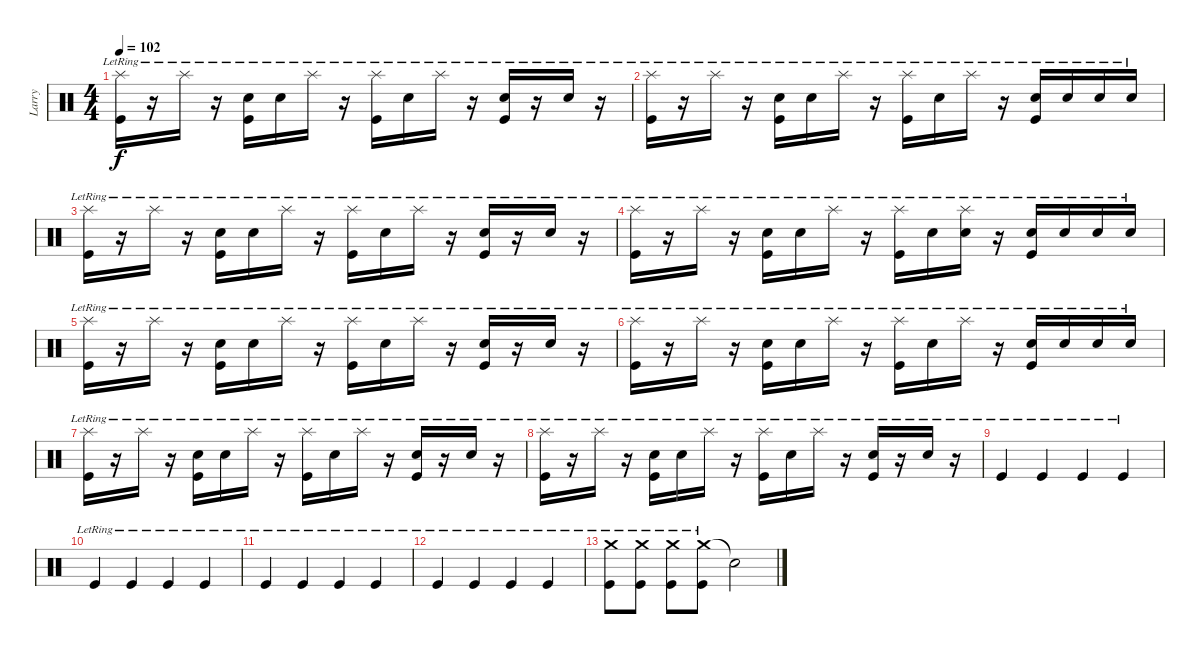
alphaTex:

\track ("Larry" "Larry") {instrument percussion}
\staff {score}
\articulation defaults
\ts (4 4)
\tempo 102
\clef neutral
\ks c
("Splash (hit)"{lr} "Kick (hit)"{lr}).16{dy f} r.16 "Splash (hit)"{lr}.16 r.16 ("Snare (hit) 2"{lr} "Kick (hit)"{lr}).16 "Snare (hit) 2"{lr}.16 "Splash (hit)"{lr}.16 r.16 ("Splash (hit)"{lr} "Kick (hit)"{lr}).16 "Snare (hit) 2"{lr}.16 "Splash (hit)"{lr}.16 r.16 ("Snare (hit) 2"{lr} "Kick (hit)"{lr}).16 r.16 "Snare (hit) 2"{lr}.16 r.16 |
("Splash (hit)"{lr} "Kick (hit)"{lr}).16 r.16 "Splash (hit)"{lr}.16 r.16 ("Snare (hit) 2"{lr} "Kick (hit)"{lr}).16 "Snare (hit) 2"{lr}.16 "Splash (hit)"{lr}.16 r.16 ("Splash (hit)"{lr} "Kick (hit)"{lr}).16 "Snare (hit) 2"{lr}.16 "Splash (hit)"{lr}.16 r.16 ("Snare (hit) 2"{lr} "Kick (hit)"{lr}).16 "Snare (hit) 2"{lr}.16 "Snare (hit) 2"{lr}.16 "Snare (hit) 2"{lr}.16 |
("Splash (hit)"{lr} "Kick (hit)"{lr}).16 r.16 "Splash (hit)"{lr}.16 r.16 ("Snare (hit) 2"{lr} "Kick (hit)"{lr}).16 "Snare (hit) 2"{lr}.16 "Splash (hit)"{lr}.16 r.16 ("Splash (hit)"{lr} "Kick (hit)"{lr}).16 "Snare (hit) 2"{lr}.16 "Splash (hit)"{lr}.16 r.16 ("Snare (hit) 2"{lr} "Kick (hit)"{lr}).16 r.16 "Snare (hit) 2"{lr}.16 r.16 |
("Splash (hit)"{lr} "Kick (hit)"{lr}).16 r.16 "Splash (hit)"{lr}.16 r.16 ("Snare (hit) 2"{lr} "Kick (hit)"{lr}).16 "Snare (hit) 2"{lr}.16 "Splash (hit)"{lr}.16 r.16 ("Splash (hit)"{lr} "Kick (hit)"{lr}).16 "Snare (hit) 2"{lr}.16 ("Splash (hit)"{lr} "Snare (hit) 2"{lr}).16 r.16 ("Snare (hit) 2"{lr} "Kick (hit)"{lr}).16 "Snare (hit) 2"{lr}.16 "Snare (hit) 2"{lr}.16 "Snare (hit) 2"{lr}.16 |
("Splash (hit)"{lr} "Kick (hit)"{lr}).16 r.16 "Splash (hit)"{lr}.16 r.16 ("Snare (hit) 2"{lr} "Kick (hit)"{lr}).16 "Snare (hit) 2"{lr}.16 "Splash (hit)"{lr}.16 r.16 ("Splash (hit)"{lr} "Kick (hit)"{lr}).16 "Snare (hit) 2"{lr}.16 "Splash (hit)"{lr}.16 r.16 ("Snare (hit) 2"{lr} "Kick (hit)"{lr}).16 r.16 "Snare (hit) 2"{lr}.16 r.16 |
("Splash (hit)"{lr} "Kick (hit)"{lr}).16 r.16 "Splash (hit)"{lr}.16 r.16 ("Snare (hit) 2"{lr} "Kick (hit)"{lr}).16 "Snare (hit) 2"{lr}.16 "Splash (hit)"{lr}.16 r.16 ("Splash (hit)"{lr} "Kick (hit)"{lr}).16 "Snare (hit) 2"{lr}.16 "Splash (hit)"{lr}.16 r.16 ("Snare (hit) 2"{lr} "Kick (hit)"{lr}).16 "Snare (hit) 2"{lr}.16 "Snare (hit) 2"{lr}.16 "Snare (hit) 2"{lr}.16 |
("Splash (hit)"{lr} "Kick (hit)"{lr}).16 r.16 "Splash (hit)"{lr}.16 r.16 ("Snare (hit) 2"{lr} "Kick (hit)"{lr}).16 "Snare (hit) 2"{lr}.16 "Splash (hit)"{lr}.16 r.16 ("Splash (hit)"{lr} "Kick (hit)"{lr}).16 "Snare (hit) 2"{lr}.16 "Splash (hit)"{lr}.16 r.16 ("Snare (hit) 2"{lr} "Kick (hit)"{lr}).16 r.16 "Snare (hit) 2"{lr}.16 r.16 |
("Splash (hit)"{lr} "Kick (hit)"{lr}).16 r.16 "Splash (hit)"{lr}.16 r.16 ("Snare (hit) 2"{lr} "Kick (hit)"{lr}).16 "Snare (hit) 2"{lr}.16 "Splash (hit)"{lr}.16 r.16 ("Splash (hit)"{lr} "Kick (hit)"{lr}).16 "Snare (hit) 2"{lr}.16 "Splash (hit)"{lr}.16 r.16 ("Snare (hit) 2"{lr} "Kick (hit)"{lr}).16 r.16 "Snare (hit) 2"{lr}.16 r.16 |
"Kick (hit)"{lr}.4 "Kick (hit)"{lr}.4 "Kick (hit)"{lr}.4 "Kick (hit)"{lr}.4 |
"Kick (hit)"{lr}.4 "Kick (hit)"{lr}.4 "Kick (hit)"{lr}.4 "Kick (hit)"{lr}.4 |
"Kick (hit)"{lr}.4 "Kick (hit)"{lr}.4 "Kick (hit)"{lr}.4 "Kick (hit)"{lr}.4 |
"Kick (hit)"{lr}.4 "Kick (hit)"{lr}.4 "Kick (hit)"{lr}.4 "Kick (hit)"{lr}.4 |
("Crash medium (hit)"{lr} "Kick (hit)"{lr}).8 ("Crash medium (hit)"{lr} "Kick (hit)"{lr}).8 ("Crash medium (hit)"{lr} "Kick (hit)"{lr}).8 ("Crash medium (hit)"{lr} "Kick (hit)"{lr}).8 "Snare (hit)"{t}.2
